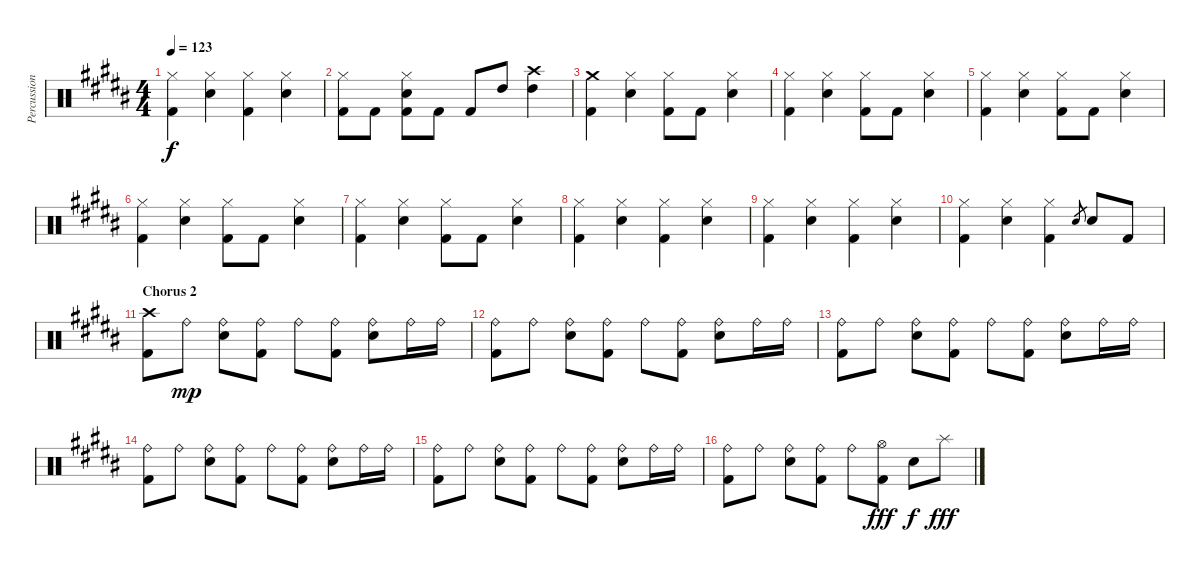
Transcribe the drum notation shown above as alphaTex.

\track ("Percussion" "Percussion") {instrument percussion}
\staff {score}
\articulation defaults
\ts (4 4)
\tempo 123
\clef neutral
\ks b
("Hi-Hat (closed)" "Kick (hit) 2").4{dy f} ("Hi-Hat (closed)" "Snare (hit) 2").4 ("Hi-Hat (closed)" "Kick (hit) 2").4 ("Hi-Hat (closed)" "Snare (hit) 2").4 |
("Hi-Hat (closed)" "Kick (hit) 2").8 "Kick (hit) 2".8 ("Hi-Hat (closed)" "Snare (hit) 2" "Kick (hit) 2").8 "Kick (hit) 2".8 "Kick (hit) 2".8 "High Tom (hit)".8 ("Crash high (hit)" "High Tom (hit)").4 |
("Crash medium (hit)" "Kick (hit) 2").4 ("Hi-Hat (closed)" "Snare (hit) 2").4 ("Hi-Hat (closed)" "Kick (hit) 2").8 "Kick (hit) 2".8 ("Hi-Hat (closed)" "Snare (hit) 2").4 |
("Hi-Hat (closed)" "Kick (hit) 2").4 ("Hi-Hat (closed)" "Snare (hit) 2").4 ("Hi-Hat (closed)" "Kick (hit) 2").8 "Kick (hit) 2".8 ("Hi-Hat (closed)" "Snare (hit) 2").4 |
("Hi-Hat (closed)" "Kick (hit) 2").4 ("Hi-Hat (closed)" "Snare (hit) 2").4 ("Hi-Hat (closed)" "Kick (hit) 2").8 "Kick (hit) 2".8 ("Hi-Hat (closed)" "Snare (hit) 2").4 |
("Hi-Hat (closed)" "Kick (hit) 2").4 ("Hi-Hat (closed)" "Snare (hit) 2").4 ("Hi-Hat (closed)" "Kick (hit) 2").8 "Kick (hit) 2".8 ("Hi-Hat (closed)" "Snare (hit) 2").4 |
("Hi-Hat (closed)" "Kick (hit) 2").4 ("Hi-Hat (closed)" "Snare (hit) 2").4 ("Hi-Hat (closed)" "Kick (hit) 2").8 "Kick (hit) 2".8 ("Hi-Hat (closed)" "Snare (hit) 2").4 |
("Hi-Hat (closed)" "Kick (hit) 2").4 ("Hi-Hat (closed)" "Snare (hit) 2").4 ("Hi-Hat (closed)" "Kick (hit) 2").4 ("Hi-Hat (closed)" "Snare (hit) 2").4 |
("Hi-Hat (closed)" "Kick (hit) 2").4 ("Hi-Hat (closed)" "Snare (hit) 2").4 ("Hi-Hat (closed)" "Kick (hit) 2").4 ("Hi-Hat (closed)" "Snare (hit) 2").4 |
("Hi-Hat (closed)" "Kick (hit) 2").4 ("Hi-Hat (closed)" "Snare (hit) 2").4 ("Hi-Hat (closed)" "Kick (hit) 2").4 "Snare (hit) 2".8{gr} "Snare (hit) 2".8 "Kick (hit) 2".8 |
\section ("" "Chorus 2")
("Crash high (hit)" "Kick (hit) 2").8 "Ride (bell)".8{dy mp} ("Ride (bell)" "Snare (hit) 2").8 ("Ride (bell)" "Kick (hit) 2").8 "Ride (bell)".8 ("Ride (bell)" "Kick (hit) 2").8 ("Ride (bell)" "Snare (hit) 2").8 "Ride (bell)".16 "Ride (bell)".16 |
("Ride (bell)" "Kick (hit) 2").8 "Ride (bell)".8 ("Ride (bell)" "Snare (hit) 2").8 ("Ride (bell)" "Kick (hit) 2").8 "Ride (bell)".8 ("Ride (bell)" "Kick (hit) 2").8 ("Ride (bell)" "Snare (hit) 2").8 "Ride (bell)".16 "Ride (bell)".16 |
("Ride (bell)" "Kick (hit) 2").8 "Ride (bell)".8 ("Ride (bell)" "Snare (hit) 2").8 ("Ride (bell)" "Kick (hit) 2").8 "Ride (bell)".8 ("Ride (bell)" "Kick (hit) 2").8 ("Ride (bell)" "Snare (hit) 2").8 "Ride (bell)".16 "Ride (bell)".16 |
("Ride (bell)" "Kick (hit) 2").8 "Ride (bell)".8 ("Ride (bell)" "Snare (hit) 2").8 ("Ride (bell)" "Kick (hit) 2").8 "Ride (bell)".8 ("Ride (bell)" "Kick (hit) 2").8 ("Ride (bell)" "Snare (hit) 2").8 "Ride (bell)".16 "Ride (bell)".16 |
("Ride (bell)" "Kick (hit) 2").8 "Ride (bell)".8 ("Ride (bell)" "Snare (hit) 2").8 ("Ride (bell)" "Kick (hit) 2").8 "Ride (bell)".8 ("Ride (bell)" "Kick (hit) 2").8 ("Ride (bell)" "Snare (hit) 2").8 "Ride (bell)".16 "Ride (bell)".16 |
("Ride (bell)" "Kick (hit) 2").8 "Ride (bell)".8 ("Ride (bell)" "Snare (hit) 2").8 ("Ride (bell)" "Kick (hit) 2").8 "Ride (bell)".8 ("Hi-Hat (open)" "Kick (hit) 2").8{dy fff} "Snare (hit) 2".8{dy f} "Splash (hit)".8{dy fff}
